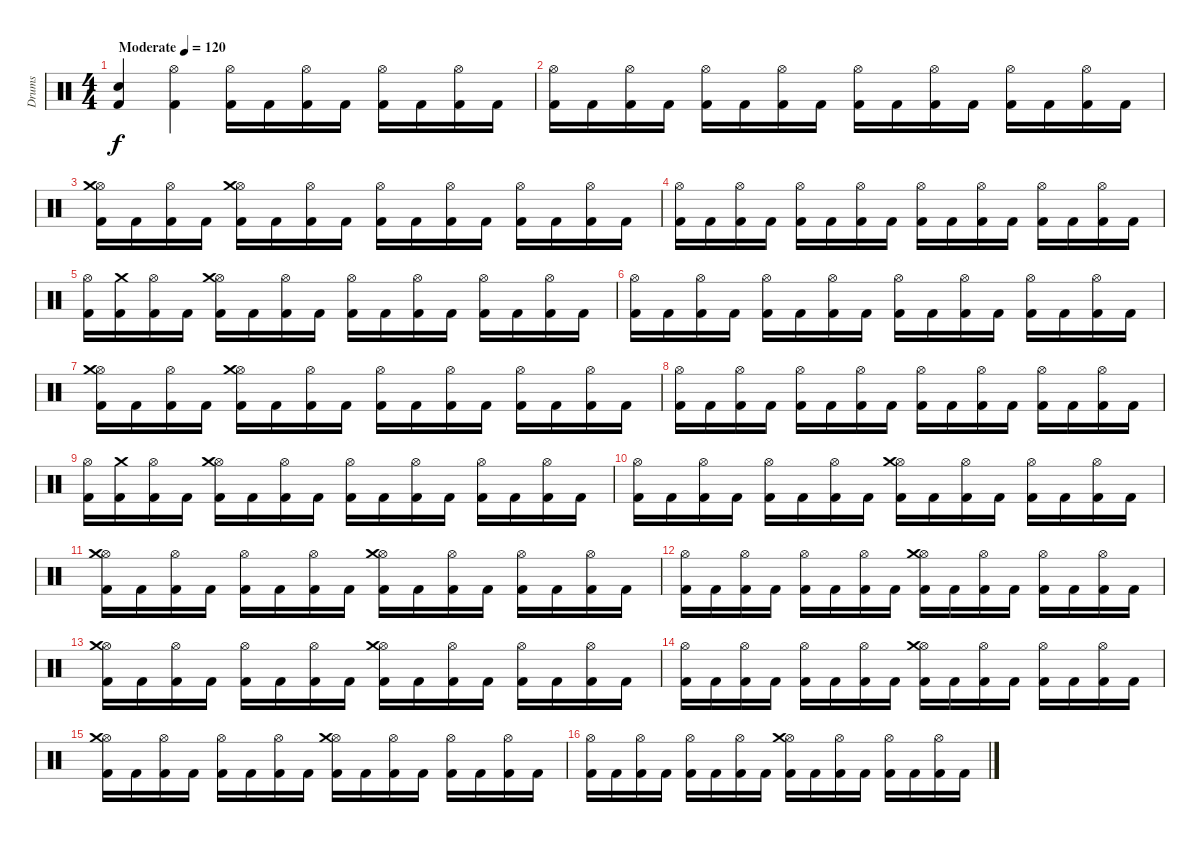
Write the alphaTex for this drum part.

\track ("Drums" "Drums") {instrument percussion}
\staff {score}
\articulation defaults
\ts (4 4)
\tempo (120 "Moderate")
\clef neutral
\ks c
("Kick (hit) 2" "Snare (hit) 2").4{dy f} ("Kick (hit) 2" "Hi-Hat (open)").4 ("Kick (hit) 2" "Hi-Hat (open)").16 "Kick (hit) 2".16 ("Kick (hit) 2" "Hi-Hat (open)").16 "Kick (hit) 2".16 ("Kick (hit) 2" "Hi-Hat (open)").16 "Kick (hit) 2".16 ("Kick (hit) 2" "Hi-Hat (open)").16 "Kick (hit) 2".16 |
("Kick (hit) 2" "Hi-Hat (open)").16 "Kick (hit) 2".16 ("Kick (hit) 2" "Hi-Hat (open)").16 "Kick (hit) 2".16 ("Kick (hit) 2" "Hi-Hat (open)").16 "Kick (hit) 2".16 ("Kick (hit) 2" "Hi-Hat (open)").16 "Kick (hit) 2".16 ("Kick (hit) 2" "Hi-Hat (open)").16 "Kick (hit) 2".16 ("Kick (hit) 2" "Hi-Hat (open)").16 "Kick (hit) 2".16 ("Kick (hit) 2" "Hi-Hat (open)").16 "Kick (hit) 2".16 ("Kick (hit) 2" "Hi-Hat (open)").16 "Kick (hit) 2".16 |
("Kick (hit) 2" "Hi-Hat (open)" "Crash medium (hit)").16 "Kick (hit) 2".16 ("Kick (hit) 2" "Hi-Hat (open)").16 "Kick (hit) 2".16 ("Kick (hit) 2" "Hi-Hat (open)" "Crash medium (hit)").16 "Kick (hit) 2".16 ("Kick (hit) 2" "Hi-Hat (open)").16 "Kick (hit) 2".16 ("Kick (hit) 2" "Hi-Hat (open)").16 "Kick (hit) 2".16 ("Kick (hit) 2" "Hi-Hat (open)").16 "Kick (hit) 2".16 ("Kick (hit) 2" "Hi-Hat (open)").16 "Kick (hit) 2".16 ("Kick (hit) 2" "Hi-Hat (open)").16 "Kick (hit) 2".16 |
("Kick (hit) 2" "Hi-Hat (open)").16 "Kick (hit) 2".16 ("Kick (hit) 2" "Hi-Hat (open)").16 "Kick (hit) 2".16 ("Kick (hit) 2" "Hi-Hat (open)").16 "Kick (hit) 2".16 ("Kick (hit) 2" "Hi-Hat (open)").16 "Kick (hit) 2".16 ("Kick (hit) 2" "Hi-Hat (open)").16 "Kick (hit) 2".16 ("Kick (hit) 2" "Hi-Hat (open)").16 "Kick (hit) 2".16 ("Kick (hit) 2" "Hi-Hat (open)").16 "Kick (hit) 2".16 ("Kick (hit) 2" "Hi-Hat (open)").16 "Kick (hit) 2".16 |
("Kick (hit) 2" "Hi-Hat (open)").16 ("Kick (hit) 2" "Crash medium (hit)").16 ("Kick (hit) 2" "Hi-Hat (open)").16 "Kick (hit) 2".16 ("Kick (hit) 2" "Hi-Hat (open)" "Crash medium (hit)").16 "Kick (hit) 2".16 ("Kick (hit) 2" "Hi-Hat (open)").16 "Kick (hit) 2".16 ("Kick (hit) 2" "Hi-Hat (open)").16 "Kick (hit) 2".16 ("Kick (hit) 2" "Hi-Hat (open)").16 "Kick (hit) 2".16 ("Kick (hit) 2" "Hi-Hat (open)").16 "Kick (hit) 2".16 ("Kick (hit) 2" "Hi-Hat (open)").16 "Kick (hit) 2".16 |
("Kick (hit) 2" "Hi-Hat (open)").16 "Kick (hit) 2".16 ("Kick (hit) 2" "Hi-Hat (open)").16 "Kick (hit) 2".16 ("Kick (hit) 2" "Hi-Hat (open)").16 "Kick (hit) 2".16 ("Kick (hit) 2" "Hi-Hat (open)").16 "Kick (hit) 2".16 ("Kick (hit) 2" "Hi-Hat (open)").16 "Kick (hit) 2".16 ("Kick (hit) 2" "Hi-Hat (open)").16 "Kick (hit) 2".16 ("Kick (hit) 2" "Hi-Hat (open)").16 "Kick (hit) 2".16 ("Kick (hit) 2" "Hi-Hat (open)").16 "Kick (hit) 2".16 |
("Kick (hit) 2" "Hi-Hat (open)" "Crash medium (hit)").16 "Kick (hit) 2".16 ("Kick (hit) 2" "Hi-Hat (open)").16 "Kick (hit) 2".16 ("Kick (hit) 2" "Hi-Hat (open)" "Crash medium (hit)").16 "Kick (hit) 2".16 ("Kick (hit) 2" "Hi-Hat (open)").16 "Kick (hit) 2".16 ("Kick (hit) 2" "Hi-Hat (open)").16 "Kick (hit) 2".16 ("Kick (hit) 2" "Hi-Hat (open)").16 "Kick (hit) 2".16 ("Kick (hit) 2" "Hi-Hat (open)").16 "Kick (hit) 2".16 ("Kick (hit) 2" "Hi-Hat (open)").16 "Kick (hit) 2".16 |
("Kick (hit) 2" "Hi-Hat (open)").16 "Kick (hit) 2".16 ("Kick (hit) 2" "Hi-Hat (open)").16 "Kick (hit) 2".16 ("Kick (hit) 2" "Hi-Hat (open)").16 "Kick (hit) 2".16 ("Kick (hit) 2" "Hi-Hat (open)").16 "Kick (hit) 2".16 ("Kick (hit) 2" "Hi-Hat (open)").16 "Kick (hit) 2".16 ("Kick (hit) 2" "Hi-Hat (open)").16 "Kick (hit) 2".16 ("Kick (hit) 2" "Hi-Hat (open)").16 "Kick (hit) 2".16 ("Kick (hit) 2" "Hi-Hat (open)").16 "Kick (hit) 2".16 |
("Kick (hit) 2" "Hi-Hat (open)").16 ("Kick (hit) 2" "Crash medium (hit)").16 ("Kick (hit) 2" "Hi-Hat (open)").16 "Kick (hit) 2".16 ("Kick (hit) 2" "Hi-Hat (open)" "Crash medium (hit)").16 "Kick (hit) 2".16 ("Kick (hit) 2" "Hi-Hat (open)").16 "Kick (hit) 2".16 ("Kick (hit) 2" "Hi-Hat (open)").16 "Kick (hit) 2".16 ("Kick (hit) 2" "Hi-Hat (open)").16 "Kick (hit) 2".16 ("Kick (hit) 2" "Hi-Hat (open)").16 "Kick (hit) 2".16 ("Kick (hit) 2" "Hi-Hat (open)").16 "Kick (hit) 2".16 |
("Kick (hit) 2" "Hi-Hat (open)").16 "Kick (hit) 2".16 ("Kick (hit) 2" "Hi-Hat (open)").16 "Kick (hit) 2".16 ("Kick (hit) 2" "Hi-Hat (open)").16 "Kick (hit) 2".16 ("Kick (hit) 2" "Hi-Hat (open)").16 "Kick (hit) 2".16 ("Kick (hit) 2" "Hi-Hat (open)" "Crash medium (hit)").16 "Kick (hit) 2".16 ("Kick (hit) 2" "Hi-Hat (open)").16 "Kick (hit) 2".16 ("Kick (hit) 2" "Hi-Hat (open)").16 "Kick (hit) 2".16 ("Kick (hit) 2" "Hi-Hat (open)").16 "Kick (hit) 2".16 |
("Kick (hit) 2" "Hi-Hat (open)" "Crash medium (hit)").16 "Kick (hit) 2".16 ("Kick (hit) 2" "Hi-Hat (open)").16 "Kick (hit) 2".16 ("Kick (hit) 2" "Hi-Hat (open)").16 "Kick (hit) 2".16 ("Kick (hit) 2" "Hi-Hat (open)").16 "Kick (hit) 2".16 ("Kick (hit) 2" "Hi-Hat (open)" "Crash medium (hit)").16 "Kick (hit) 2".16 ("Kick (hit) 2" "Hi-Hat (open)").16 "Kick (hit) 2".16 ("Kick (hit) 2" "Hi-Hat (open)").16 "Kick (hit) 2".16 ("Kick (hit) 2" "Hi-Hat (open)").16 "Kick (hit) 2".16 |
("Kick (hit) 2" "Hi-Hat (open)").16 "Kick (hit) 2".16 ("Kick (hit) 2" "Hi-Hat (open)").16 "Kick (hit) 2".16 ("Kick (hit) 2" "Hi-Hat (open)").16 "Kick (hit) 2".16 ("Kick (hit) 2" "Hi-Hat (open)").16 "Kick (hit) 2".16 ("Kick (hit) 2" "Hi-Hat (open)" "Crash medium (hit)").16 "Kick (hit) 2".16 ("Kick (hit) 2" "Hi-Hat (open)").16 "Kick (hit) 2".16 ("Kick (hit) 2" "Hi-Hat (open)").16 "Kick (hit) 2".16 ("Kick (hit) 2" "Hi-Hat (open)").16 "Kick (hit) 2".16 |
("Kick (hit) 2" "Hi-Hat (open)" "Crash medium (hit)").16 "Kick (hit) 2".16 ("Kick (hit) 2" "Hi-Hat (open)").16 "Kick (hit) 2".16 ("Kick (hit) 2" "Hi-Hat (open)").16 "Kick (hit) 2".16 ("Kick (hit) 2" "Hi-Hat (open)").16 "Kick (hit) 2".16 ("Kick (hit) 2" "Hi-Hat (open)" "Crash medium (hit)").16 "Kick (hit) 2".16 ("Kick (hit) 2" "Hi-Hat (open)").16 "Kick (hit) 2".16 ("Kick (hit) 2" "Hi-Hat (open)").16 "Kick (hit) 2".16 ("Kick (hit) 2" "Hi-Hat (open)").16 "Kick (hit) 2".16 |
("Kick (hit) 2" "Hi-Hat (open)").16 "Kick (hit) 2".16 ("Kick (hit) 2" "Hi-Hat (open)").16 "Kick (hit) 2".16 ("Kick (hit) 2" "Hi-Hat (open)").16 "Kick (hit) 2".16 ("Kick (hit) 2" "Hi-Hat (open)").16 "Kick (hit) 2".16 ("Kick (hit) 2" "Hi-Hat (open)" "Crash medium (hit)").16 "Kick (hit) 2".16 ("Kick (hit) 2" "Hi-Hat (open)").16 "Kick (hit) 2".16 ("Kick (hit) 2" "Hi-Hat (open)").16 "Kick (hit) 2".16 ("Kick (hit) 2" "Hi-Hat (open)").16 "Kick (hit) 2".16 |
("Kick (hit) 2" "Hi-Hat (open)" "Crash medium (hit)").16 "Kick (hit) 2".16 ("Kick (hit) 2" "Hi-Hat (open)").16 "Kick (hit) 2".16 ("Kick (hit) 2" "Hi-Hat (open)").16 "Kick (hit) 2".16 ("Kick (hit) 2" "Hi-Hat (open)").16 "Kick (hit) 2".16 ("Kick (hit) 2" "Hi-Hat (open)" "Crash medium (hit)").16 "Kick (hit) 2".16 ("Kick (hit) 2" "Hi-Hat (open)").16 "Kick (hit) 2".16 ("Kick (hit) 2" "Hi-Hat (open)").16 "Kick (hit) 2".16 ("Kick (hit) 2" "Hi-Hat (open)").16 "Kick (hit) 2".16 |
("Kick (hit) 2" "Hi-Hat (open)").16 "Kick (hit) 2".16 ("Kick (hit) 2" "Hi-Hat (open)").16 "Kick (hit) 2".16 ("Kick (hit) 2" "Hi-Hat (open)").16 "Kick (hit) 2".16 ("Kick (hit) 2" "Hi-Hat (open)").16 "Kick (hit) 2".16 ("Kick (hit) 2" "Hi-Hat (open)" "Crash medium (hit)").16 "Kick (hit) 2".16 ("Kick (hit) 2" "Hi-Hat (open)").16 "Kick (hit) 2".16 ("Kick (hit) 2" "Hi-Hat (open)").16 "Kick (hit) 2".16 ("Kick (hit) 2" "Hi-Hat (open)").16 "Kick (hit) 2".16
